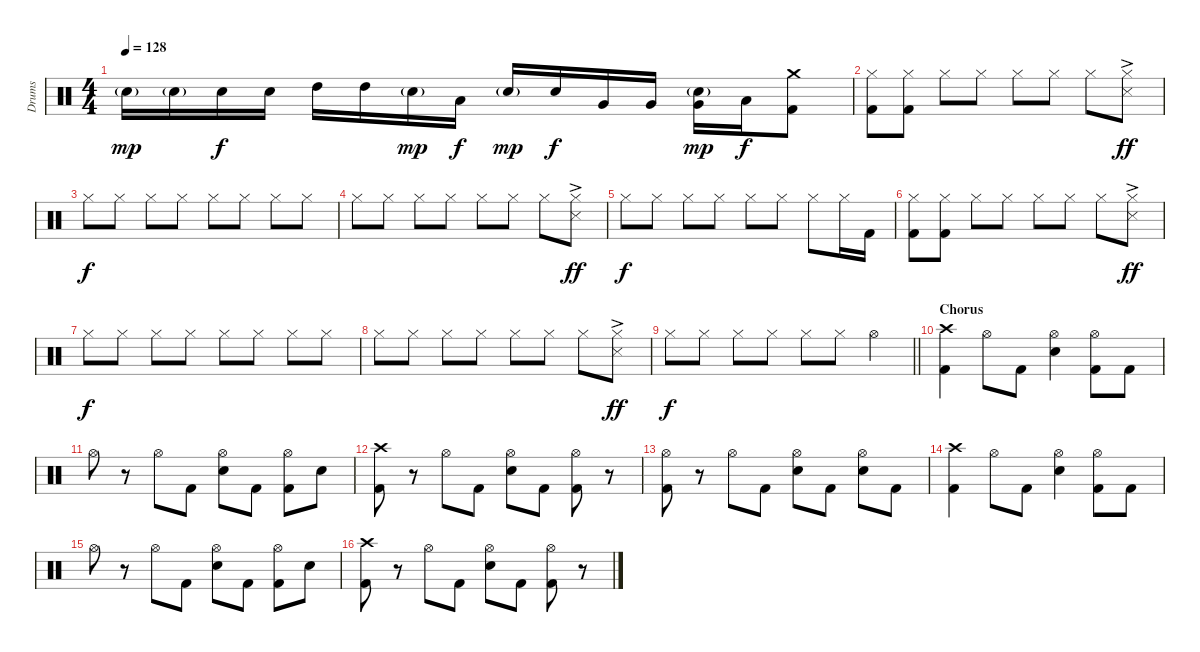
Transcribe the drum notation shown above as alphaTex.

\track ("Drums" "Drums") {instrument percussion}
\staff {score}
\articulation defaults
\ts (4 4)
\tempo 128
\clef neutral
\ks c "Electric Snare (hit)"{g}.16{dy mp} "Electric Snare (hit)"{g}.16 "Electric Snare (hit)".16{dy f} "Electric Snare (hit)".16 "High Tom (hit)".16 "High Tom (hit)".16 "Electric Snare (hit)"{g}.16{dy mp} "Low Tom (hit)".16{dy f} "Electric Snare (hit)"{g}.16{dy mp} "Electric Snare (hit)".16{dy f} "Very Low Tom (hit)".16 "Very Low Tom (hit)".16
("Very Low Tom (hit)" "Electric Snare (hit)"{g}).16{dy mp} "Low Floor Tom (hit)".16{dy f} ("Crash medium (hit)" "Kick (hit) 2").8 |
("Hi-Hat (closed)" "Kick (hit) 2").8 ("Hi-Hat (closed)" "Kick (hit) 2").8 "Hi-Hat (closed)".8 "Hi-Hat (closed)".8 "Hi-Hat (closed)".8 "Hi-Hat (closed)".8 "Hi-Hat (closed)".8 ("Hi-Hat (closed)" "Snare (side stick) 3"{ac}).8{dy ff} |
"Hi-Hat (closed)".8{dy f} "Hi-Hat (closed)".8 "Hi-Hat (closed)".8 "Hi-Hat (closed)".8 "Hi-Hat (closed)".8 "Hi-Hat (closed)".8 "Hi-Hat (closed)".8 "Hi-Hat (closed)".8 |
"Hi-Hat (closed)".8 "Hi-Hat (closed)".8 "Hi-Hat (closed)".8 "Hi-Hat (closed)".8 "Hi-Hat (closed)".8 "Hi-Hat (closed)".8 "Hi-Hat (closed)".8 ("Hi-Hat (closed)" "Snare (side stick) 3"{ac}).8{dy ff} |
"Hi-Hat (closed)".8{dy f} "Hi-Hat (closed)".8 "Hi-Hat (closed)".8 "Hi-Hat (closed)".8 "Hi-Hat (closed)".8 "Hi-Hat (closed)".8 "Hi-Hat (closed)".8 "Hi-Hat (closed)".16 "Kick (hit) 2".16 |
("Hi-Hat (closed)" "Kick (hit) 2").8 ("Hi-Hat (closed)" "Kick (hit) 2").8 "Hi-Hat (closed)".8 "Hi-Hat (closed)".8 "Hi-Hat (closed)".8 "Hi-Hat (closed)".8 "Hi-Hat (closed)".8 ("Hi-Hat (closed)" "Snare (side stick) 3"{ac}).8{dy ff} |
"Hi-Hat (closed)".8{dy f} "Hi-Hat (closed)".8 "Hi-Hat (closed)".8 "Hi-Hat (closed)".8 "Hi-Hat (closed)".8 "Hi-Hat (closed)".8 "Hi-Hat (closed)".8 "Hi-Hat (closed)".8 |
"Hi-Hat (closed)".8 "Hi-Hat (closed)".8 "Hi-Hat (closed)".8 "Hi-Hat (closed)".8 "Hi-Hat (closed)".8 "Hi-Hat (closed)".8 "Hi-Hat (closed)".8 ("Hi-Hat (closed)" "Snare (side stick) 3"{ac}).8{dy ff} |
\barLineRight lightlight "Hi-Hat (closed)".8{dy f} "Hi-Hat (closed)".8 "Hi-Hat (closed)".8 "Hi-Hat (closed)".8 "Hi-Hat (closed)".8 "Hi-Hat (closed)".8 "Hi-Hat (open)".4
|
\section ("" "Chorus")
("Crash high (hit)" "Kick (hit) 2").4 "Hi-Hat (open)".8 "Kick (hit) 2".8 ("Hi-Hat (open)" "Electric Snare (hit)").4 ("Hi-Hat (open)" "Kick (hit) 2").8 "Kick (hit) 2".8 |
"Hi-Hat (open)".8 r.8 "Hi-Hat (open)".8 "Kick (hit) 2".8 ("Hi-Hat (open)" "Electric Snare (hit)").8 "Kick (hit) 2".8 ("Hi-Hat (open)" "Kick (hit) 2").8 "Electric Snare (hit)".8 |
("Crash high (hit)" "Kick (hit) 2").8 r.8 "Hi-Hat (open)".8 "Kick (hit) 2".8 ("Hi-Hat (open)" "Electric Snare (hit)").8 "Kick (hit) 2".8 ("Hi-Hat (open)" "Kick (hit) 2").8 r.8 |
("Hi-Hat (open)" "Kick (hit) 2").8 r.8 "Hi-Hat (open)".8 "Kick (hit) 2".8 ("Hi-Hat (open)" "Electric Snare (hit)").8 "Kick (hit) 2".8 ("Hi-Hat (open)" "Electric Snare (hit)").8 "Kick (hit) 2".8 |
("Crash high (hit)" "Kick (hit) 2").4 "Hi-Hat (open)".8 "Kick (hit) 2".8 ("Hi-Hat (open)" "Electric Snare (hit)").4 ("Hi-Hat (open)" "Kick (hit) 2").8 "Kick (hit) 2".8 |
"Hi-Hat (open)".8 r.8 "Hi-Hat (open)".8 "Kick (hit) 2".8 ("Hi-Hat (open)" "Electric Snare (hit)").8 "Kick (hit) 2".8 ("Hi-Hat (open)" "Kick (hit) 2").8 "Electric Snare (hit)".8 |
("Crash high (hit)" "Kick (hit) 2").8 r.8 "Hi-Hat (open)".8 "Kick (hit) 2".8 ("Hi-Hat (open)" "Electric Snare (hit)").8 "Kick (hit) 2".8 ("Hi-Hat (open)" "Kick (hit) 2").8 r.8
